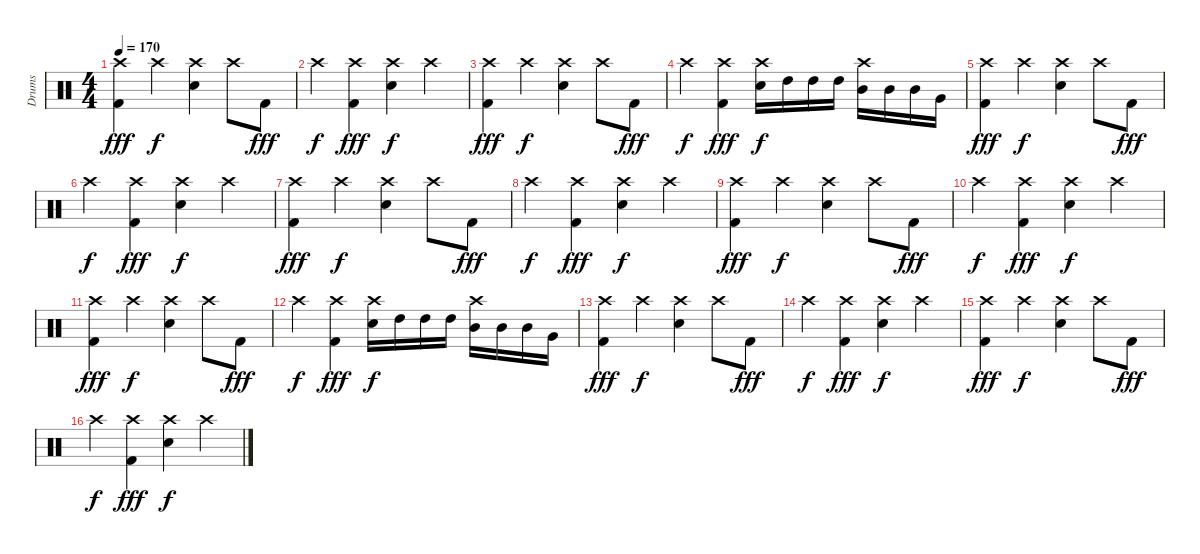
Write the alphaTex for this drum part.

\track ("Drums" "Drums") {instrument percussion}
\staff {score}
\articulation defaults
\ts (4 4)
\tempo 170
\clef neutral
\ks c
("Crash high (hit)" "Kick (hit) 2").4{dy fff} "Crash high (hit)".4{dy f} ("Crash high (hit)" "Electric Snare (hit)").4 "Crash high (hit)".8 "Kick (hit) 2".8{dy fff} |
"Crash high (hit)".4{dy f} ("Crash high (hit)" "Kick (hit) 2").4{dy fff} ("Crash high (hit)" "Electric Snare (hit)").4{dy f} "Crash high (hit)".4 |
("Crash high (hit)" "Kick (hit) 2").4{dy fff} "Crash high (hit)".4{dy f} ("Crash high (hit)" "Electric Snare (hit)").4 "Crash high (hit)".8 "Kick (hit) 2".8{dy fff} |
"Crash high (hit)".4{dy f} ("Crash high (hit)" "Kick (hit) 2").4{dy fff} ("Crash high (hit)" "Electric Snare (hit)").16{dy f} "High Tom (hit)".16 "High Tom (hit)".16 "High Tom (hit)".16 ("Crash high (hit)" "Mid Tom (hit)").16 "Mid Tom (hit)".16 "Mid Tom (hit)".16 "Very Low Tom (hit)".16 |
("Crash high (hit)" "Kick (hit) 2").4{dy fff} "Crash high (hit)".4{dy f} ("Crash high (hit)" "Electric Snare (hit)").4 "Crash high (hit)".8 "Kick (hit) 2".8{dy fff} |
"Crash high (hit)".4{dy f} ("Crash high (hit)" "Kick (hit) 2").4{dy fff} ("Crash high (hit)" "Electric Snare (hit)").4{dy f} "Crash high (hit)".4 |
("Crash high (hit)" "Kick (hit) 2").4{dy fff} "Crash high (hit)".4{dy f} ("Crash high (hit)" "Electric Snare (hit)").4 "Crash high (hit)".8 "Kick (hit) 2".8{dy fff} |
"Crash high (hit)".4{dy f} ("Crash high (hit)" "Kick (hit) 2").4{dy fff} ("Crash high (hit)" "Electric Snare (hit)").4{dy f} "Crash high (hit)".4 |
("Crash high (hit)" "Kick (hit) 2").4{dy fff} "Crash high (hit)".4{dy f} ("Crash high (hit)" "Electric Snare (hit)").4 "Crash high (hit)".8 "Kick (hit) 2".8{dy fff} |
"Crash high (hit)".4{dy f} ("Crash high (hit)" "Kick (hit) 2").4{dy fff} ("Crash high (hit)" "Electric Snare (hit)").4{dy f} "Crash high (hit)".4 |
("Crash high (hit)" "Kick (hit) 2").4{dy fff} "Crash high (hit)".4{dy f} ("Crash high (hit)" "Electric Snare (hit)").4 "Crash high (hit)".8 "Kick (hit) 2".8{dy fff} |
"Crash high (hit)".4{dy f} ("Crash high (hit)" "Kick (hit) 2").4{dy fff} ("Crash high (hit)" "Electric Snare (hit)").16{dy f} "High Tom (hit)".16 "High Tom (hit)".16 "High Tom (hit)".16 ("Crash high (hit)" "Mid Tom (hit)").16 "Mid Tom (hit)".16 "Mid Tom (hit)".16 "Very Low Tom (hit)".16 |
("Crash high (hit)" "Kick (hit) 2").4{dy fff} "Crash high (hit)".4{dy f} ("Crash high (hit)" "Electric Snare (hit)").4 "Crash high (hit)".8 "Kick (hit) 2".8{dy fff} |
"Crash high (hit)".4{dy f} ("Crash high (hit)" "Kick (hit) 2").4{dy fff} ("Crash high (hit)" "Electric Snare (hit)").4{dy f} "Crash high (hit)".4 |
("Crash high (hit)" "Kick (hit) 2").4{dy fff} "Crash high (hit)".4{dy f} ("Crash high (hit)" "Electric Snare (hit)").4 "Crash high (hit)".8 "Kick (hit) 2".8{dy fff} |
"Crash high (hit)".4{dy f} ("Crash high (hit)" "Kick (hit) 2").4{dy fff} ("Crash high (hit)" "Electric Snare (hit)").4{dy f} "Crash high (hit)".4
